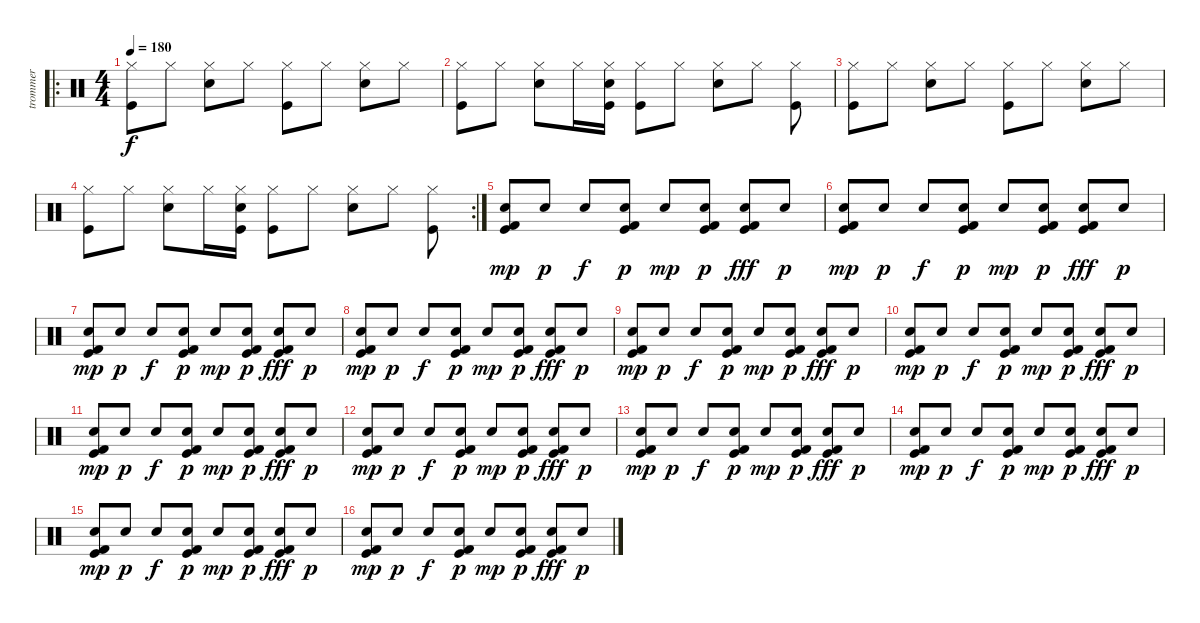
\track ("trommer" "trommer") {instrument percussion}
\staff {score}
\articulation defaults
\ro
\ts (4 4)
\tempo 180
\clef neutral
\ks c
("Kick (hit)" "Hi-Hat (closed)").8{dy f} "Hi-Hat (closed)".8 ("Electric Snare (hit)" "Hi-Hat (closed)").8 "Hi-Hat (closed)".8 ("Kick (hit)" "Hi-Hat (closed)").8 "Hi-Hat (closed)".8 ("Electric Snare (hit)" "Hi-Hat (closed)").8 "Hi-Hat (closed)".8 |
("Kick (hit)" "Hi-Hat (closed)").8 "Hi-Hat (closed)".8 ("Electric Snare (hit)" "Hi-Hat (closed)").8 "Hi-Hat (closed)".16 ("Kick (hit)" "Electric Snare (hit)" "Hi-Hat (closed)").16 ("Kick (hit)" "Hi-Hat (closed)").8 "Hi-Hat (closed)".8 ("Electric Snare (hit)" "Hi-Hat (closed)").8 "Hi-Hat (closed)".8 ("Kick (hit)" "Hi-Hat (closed)").8 |
("Kick (hit)" "Hi-Hat (closed)").8 "Hi-Hat (closed)".8 ("Electric Snare (hit)" "Hi-Hat (closed)").8 "Hi-Hat (closed)".8 ("Kick (hit)" "Hi-Hat (closed)").8 "Hi-Hat (closed)".8 ("Electric Snare (hit)" "Hi-Hat (closed)").8 "Hi-Hat (closed)".8 |
\rc 2
("Kick (hit)" "Hi-Hat (closed)").8 "Hi-Hat (closed)".8 ("Electric Snare (hit)" "Hi-Hat (closed)").8 "Hi-Hat (closed)".16 ("Kick (hit)" "Electric Snare (hit)" "Hi-Hat (closed)").16 ("Kick (hit)" "Hi-Hat (closed)").8 "Hi-Hat (closed)".8 ("Electric Snare (hit)" "Hi-Hat (closed)").8 "Hi-Hat (closed)".8 ("Kick (hit)" "Hi-Hat (closed)").8 |
("Kick (hit) 2" "Kick (hit)" "Electric Snare (hit)").8{dy mp} "Electric Snare (hit)".8{dy p} "Electric Snare (hit)".8{dy f} ("Kick (hit) 2" "Kick (hit)" "Electric Snare (hit)").8{dy p} "Electric Snare (hit)".8{dy mp} ("Kick (hit) 2" "Kick (hit)" "Electric Snare (hit)").8{dy p} ("Kick (hit) 2" "Kick (hit)" "Electric Snare (hit)").8{dy fff} "Electric Snare (hit)".8{dy p} |
("Kick (hit) 2" "Kick (hit)" "Electric Snare (hit)").8{dy mp} "Electric Snare (hit)".8{dy p} "Electric Snare (hit)".8{dy f} ("Kick (hit) 2" "Kick (hit)" "Electric Snare (hit)").8{dy p} "Electric Snare (hit)".8{dy mp} ("Kick (hit) 2" "Kick (hit)" "Electric Snare (hit)").8{dy p} ("Kick (hit) 2" "Kick (hit)" "Electric Snare (hit)").8{dy fff} "Electric Snare (hit)".8{dy p} |
("Kick (hit) 2" "Kick (hit)" "Electric Snare (hit)").8{dy mp} "Electric Snare (hit)".8{dy p} "Electric Snare (hit)".8{dy f} ("Kick (hit) 2" "Kick (hit)" "Electric Snare (hit)").8{dy p} "Electric Snare (hit)".8{dy mp} ("Kick (hit) 2" "Kick (hit)" "Electric Snare (hit)").8{dy p} ("Kick (hit) 2" "Kick (hit)" "Electric Snare (hit)").8{dy fff} "Electric Snare (hit)".8{dy p} |
("Kick (hit) 2" "Kick (hit)" "Electric Snare (hit)").8{dy mp} "Electric Snare (hit)".8{dy p} "Electric Snare (hit)".8{dy f} ("Kick (hit) 2" "Kick (hit)" "Electric Snare (hit)").8{dy p} "Electric Snare (hit)".8{dy mp} ("Kick (hit) 2" "Kick (hit)" "Electric Snare (hit)").8{dy p} ("Kick (hit) 2" "Kick (hit)" "Electric Snare (hit)").8{dy fff} "Electric Snare (hit)".8{dy p} |
("Kick (hit) 2" "Kick (hit)" "Electric Snare (hit)").8{dy mp} "Electric Snare (hit)".8{dy p} "Electric Snare (hit)".8{dy f} ("Kick (hit) 2" "Kick (hit)" "Electric Snare (hit)").8{dy p} "Electric Snare (hit)".8{dy mp} ("Kick (hit) 2" "Kick (hit)" "Electric Snare (hit)").8{dy p} ("Kick (hit) 2" "Kick (hit)" "Electric Snare (hit)").8{dy fff} "Electric Snare (hit)".8{dy p} |
("Kick (hit) 2" "Kick (hit)" "Electric Snare (hit)").8{dy mp} "Electric Snare (hit)".8{dy p} "Electric Snare (hit)".8{dy f} ("Kick (hit) 2" "Kick (hit)" "Electric Snare (hit)").8{dy p} "Electric Snare (hit)".8{dy mp} ("Kick (hit) 2" "Kick (hit)" "Electric Snare (hit)").8{dy p} ("Kick (hit) 2" "Kick (hit)" "Electric Snare (hit)").8{dy fff} "Electric Snare (hit)".8{dy p} |
("Kick (hit) 2" "Kick (hit)" "Electric Snare (hit)").8{dy mp} "Electric Snare (hit)".8{dy p} "Electric Snare (hit)".8{dy f} ("Kick (hit) 2" "Kick (hit)" "Electric Snare (hit)").8{dy p} "Electric Snare (hit)".8{dy mp} ("Kick (hit) 2" "Kick (hit)" "Electric Snare (hit)").8{dy p} ("Kick (hit) 2" "Kick (hit)" "Electric Snare (hit)").8{dy fff} "Electric Snare (hit)".8{dy p} |
("Kick (hit) 2" "Kick (hit)" "Electric Snare (hit)").8{dy mp} "Electric Snare (hit)".8{dy p} "Electric Snare (hit)".8{dy f} ("Kick (hit) 2" "Kick (hit)" "Electric Snare (hit)").8{dy p} "Electric Snare (hit)".8{dy mp} ("Kick (hit) 2" "Kick (hit)" "Electric Snare (hit)").8{dy p} ("Kick (hit) 2" "Kick (hit)" "Electric Snare (hit)").8{dy fff} "Electric Snare (hit)".8{dy p} |
("Kick (hit) 2" "Kick (hit)" "Electric Snare (hit)").8{dy mp} "Electric Snare (hit)".8{dy p} "Electric Snare (hit)".8{dy f} ("Kick (hit) 2" "Kick (hit)" "Electric Snare (hit)").8{dy p} "Electric Snare (hit)".8{dy mp} ("Kick (hit) 2" "Kick (hit)" "Electric Snare (hit)").8{dy p} ("Kick (hit) 2" "Kick (hit)" "Electric Snare (hit)").8{dy fff} "Electric Snare (hit)".8{dy p} |
("Kick (hit) 2" "Kick (hit)" "Electric Snare (hit)").8{dy mp} "Electric Snare (hit)".8{dy p} "Electric Snare (hit)".8{dy f} ("Kick (hit) 2" "Kick (hit)" "Electric Snare (hit)").8{dy p} "Electric Snare (hit)".8{dy mp} ("Kick (hit) 2" "Kick (hit)" "Electric Snare (hit)").8{dy p} ("Kick (hit) 2" "Kick (hit)" "Electric Snare (hit)").8{dy fff} "Electric Snare (hit)".8{dy p} |
("Kick (hit) 2" "Kick (hit)" "Electric Snare (hit)").8{dy mp} "Electric Snare (hit)".8{dy p} "Electric Snare (hit)".8{dy f} ("Kick (hit) 2" "Kick (hit)" "Electric Snare (hit)").8{dy p} "Electric Snare (hit)".8{dy mp} ("Kick (hit) 2" "Kick (hit)" "Electric Snare (hit)").8{dy p} ("Kick (hit) 2" "Kick (hit)" "Electric Snare (hit)").8{dy fff} "Electric Snare (hit)".8{dy p} |
("Kick (hit) 2" "Kick (hit)" "Electric Snare (hit)").8{dy mp} "Electric Snare (hit)".8{dy p} "Electric Snare (hit)".8{dy f} ("Kick (hit) 2" "Kick (hit)" "Electric Snare (hit)").8{dy p} "Electric Snare (hit)".8{dy mp} ("Kick (hit) 2" "Kick (hit)" "Electric Snare (hit)").8{dy p} ("Kick (hit) 2" "Kick (hit)" "Electric Snare (hit)").8{dy fff} "Electric Snare (hit)".8{dy p}
